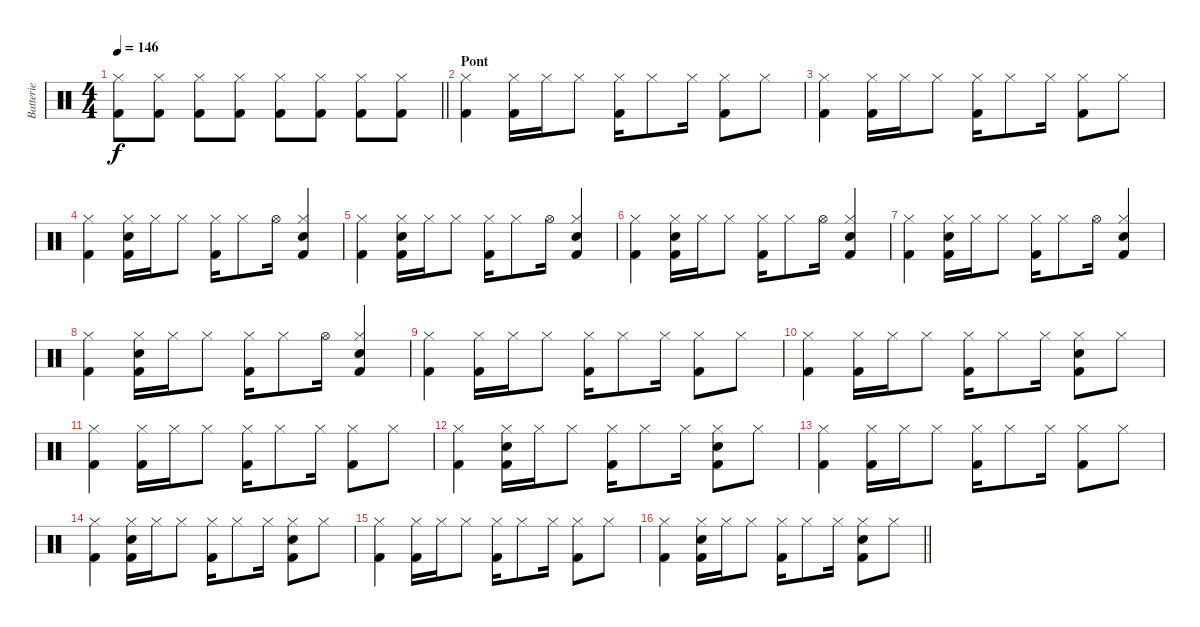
\track ("Batterie" "Batterie") {instrument percussion}
\staff {score}
\articulation defaults
\ts (4 4)
\tempo 146
\clef neutral
\barLineRight lightlight
\ks c
("Kick (hit) 2" "Hi-Hat (closed)").8{dy f} ("Kick (hit) 2" "Hi-Hat (closed)").8 ("Kick (hit) 2" "Hi-Hat (closed)").8 ("Kick (hit) 2" "Hi-Hat (closed)").8 ("Kick (hit) 2" "Hi-Hat (closed)").8 ("Kick (hit) 2" "Hi-Hat (closed)").8 ("Kick (hit) 2" "Hi-Hat (closed)").8 ("Kick (hit) 2" "Hi-Hat (closed)").8 |
\section ("" "Pont")
("Kick (hit) 2" "Hi-Hat (closed)").4 ("Kick (hit) 2" "Hi-Hat (closed)").16 "Hi-Hat (closed)".16 "Hi-Hat (closed)".8 ("Kick (hit) 2" "Hi-Hat (closed)").16 "Hi-Hat (closed)".8 "Hi-Hat (closed)".16 ("Kick (hit) 2" "Hi-Hat (closed)").8 "Hi-Hat (closed)".8 |
("Kick (hit) 2" "Hi-Hat (closed)").4 ("Kick (hit) 2" "Hi-Hat (closed)").16 "Hi-Hat (closed)".16 "Hi-Hat (closed)".8 ("Kick (hit) 2" "Hi-Hat (closed)").16 "Hi-Hat (closed)".8 "Hi-Hat (closed)".16 ("Kick (hit) 2" "Hi-Hat (closed)").8 "Hi-Hat (closed)".8 |
("Kick (hit) 2" "Hi-Hat (closed)").4 ("Kick (hit) 2" "Snare (hit) 2" "Hi-Hat (closed)").16 "Hi-Hat (closed)".16 "Hi-Hat (closed)".8 ("Kick (hit) 2" "Hi-Hat (closed)").16 "Hi-Hat (closed)".8 "Hi-Hat (open)".16 ("Kick (hit) 2" "Snare (hit) 2" "Hi-Hat (closed)").4 |
("Kick (hit) 2" "Hi-Hat (closed)").4 ("Kick (hit) 2" "Snare (hit) 2" "Hi-Hat (closed)").16 "Hi-Hat (closed)".16 "Hi-Hat (closed)".8 ("Kick (hit) 2" "Hi-Hat (closed)").16 "Hi-Hat (closed)".8 "Hi-Hat (open)".16 ("Kick (hit) 2" "Snare (hit) 2" "Hi-Hat (closed)").4 |
("Kick (hit) 2" "Hi-Hat (closed)").4 ("Kick (hit) 2" "Snare (hit) 2" "Hi-Hat (closed)").16 "Hi-Hat (closed)".16 "Hi-Hat (closed)".8 ("Kick (hit) 2" "Hi-Hat (closed)").16 "Hi-Hat (closed)".8 "Hi-Hat (open)".16 ("Kick (hit) 2" "Snare (hit) 2" "Hi-Hat (closed)").4 |
("Kick (hit) 2" "Hi-Hat (closed)").4 ("Kick (hit) 2" "Snare (hit) 2" "Hi-Hat (closed)").16 "Hi-Hat (closed)".16 "Hi-Hat (closed)".8 ("Kick (hit) 2" "Hi-Hat (closed)").16 "Hi-Hat (closed)".8 "Hi-Hat (open)".16 ("Kick (hit) 2" "Snare (hit) 2" "Hi-Hat (closed)").4 |
("Kick (hit) 2" "Hi-Hat (closed)").4 ("Kick (hit) 2" "Snare (hit) 2" "Hi-Hat (closed)").16 "Hi-Hat (closed)".16 "Hi-Hat (closed)".8 ("Kick (hit) 2" "Hi-Hat (closed)").16 "Hi-Hat (closed)".8 "Hi-Hat (open)".16 ("Kick (hit) 2" "Snare (hit) 2" "Hi-Hat (closed)").4 |
("Kick (hit) 2" "Hi-Hat (closed)").4 ("Kick (hit) 2" "Hi-Hat (closed)").16 "Hi-Hat (closed)".16 "Hi-Hat (closed)".8 ("Kick (hit) 2" "Hi-Hat (closed)").16 "Hi-Hat (closed)".8 "Hi-Hat (closed)".16 ("Kick (hit) 2" "Hi-Hat (closed)").8 "Hi-Hat (closed)".8 |
("Kick (hit) 2" "Hi-Hat (closed)").4 ("Kick (hit) 2" "Hi-Hat (closed)").16 "Hi-Hat (closed)".16 "Hi-Hat (closed)".8 ("Kick (hit) 2" "Hi-Hat (closed)").16 "Hi-Hat (closed)".8 "Hi-Hat (closed)".16 ("Kick (hit) 2" "Snare (hit) 2" "Hi-Hat (closed)").8 "Hi-Hat (closed)".8 |
("Kick (hit) 2" "Hi-Hat (closed)").4 ("Kick (hit) 2" "Hi-Hat (closed)").16 "Hi-Hat (closed)".16 "Hi-Hat (closed)".8 ("Kick (hit) 2" "Hi-Hat (closed)").16 "Hi-Hat (closed)".8 "Hi-Hat (closed)".16 ("Kick (hit) 2" "Hi-Hat (closed)").8 "Hi-Hat (closed)".8 |
("Kick (hit) 2" "Hi-Hat (closed)").4 ("Kick (hit) 2" "Snare (hit) 2" "Hi-Hat (closed)").16 "Hi-Hat (closed)".16 "Hi-Hat (closed)".8 ("Kick (hit) 2" "Hi-Hat (closed)").16 "Hi-Hat (closed)".8 "Hi-Hat (closed)".16 ("Kick (hit) 2" "Snare (hit) 2" "Hi-Hat (closed)").8 "Hi-Hat (closed)".8 |
("Kick (hit) 2" "Hi-Hat (closed)").4 ("Kick (hit) 2" "Hi-Hat (closed)").16 "Hi-Hat (closed)".16 "Hi-Hat (closed)".8 ("Kick (hit) 2" "Hi-Hat (closed)").16 "Hi-Hat (closed)".8 "Hi-Hat (closed)".16 ("Kick (hit) 2" "Hi-Hat (closed)").8 "Hi-Hat (closed)".8 |
("Kick (hit) 2" "Hi-Hat (closed)").4 ("Kick (hit) 2" "Snare (hit) 2" "Hi-Hat (closed)").16 "Hi-Hat (closed)".16 "Hi-Hat (closed)".8 ("Kick (hit) 2" "Hi-Hat (closed)").16 "Hi-Hat (closed)".8 "Hi-Hat (closed)".16 ("Kick (hit) 2" "Snare (hit) 2" "Hi-Hat (closed)").8 "Hi-Hat (closed)".8 |
("Kick (hit) 2" "Hi-Hat (closed)").4 ("Kick (hit) 2" "Hi-Hat (closed)").16 "Hi-Hat (closed)".16 "Hi-Hat (closed)".8 ("Kick (hit) 2" "Hi-Hat (closed)").16 "Hi-Hat (closed)".8 "Hi-Hat (closed)".16 ("Kick (hit) 2" "Hi-Hat (closed)").8 "Hi-Hat (closed)".8 |
\barLineRight lightlight
("Kick (hit) 2" "Hi-Hat (closed)").4 ("Kick (hit) 2" "Snare (hit) 2" "Hi-Hat (closed)").16 "Hi-Hat (closed)".16 "Hi-Hat (closed)".8 ("Kick (hit) 2" "Hi-Hat (closed)").16 "Hi-Hat (closed)".8 "Hi-Hat (closed)".16 ("Kick (hit) 2" "Snare (hit) 2" "Hi-Hat (closed)").8 "Hi-Hat (closed)".8
